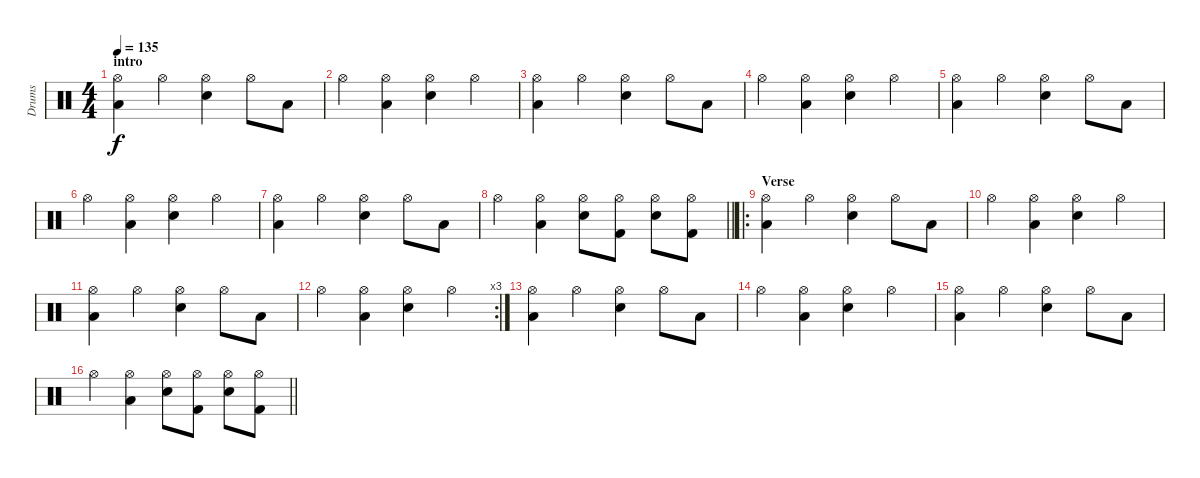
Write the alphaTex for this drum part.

\track ("Drums" "Drums") {instrument percussion}
\staff {score}
\articulation defaults
\ts (4 4)
\section ("" "intro")
\tempo 135
\clef neutral
\ks c
("Hi-Hat (open)" "Low Tom (hit)").4{dy f} "Hi-Hat (open)".4 ("Hi-Hat (open)" "Electric Snare (hit)").4 "Hi-Hat (open)".8 "Low Tom (hit)".8 |
"Hi-Hat (open)".4 ("Hi-Hat (open)" "Low Tom (hit)").4 ("Hi-Hat (open)" "Electric Snare (hit)").4 "Hi-Hat (open)".4 |
("Hi-Hat (open)" "Low Tom (hit)").4 "Hi-Hat (open)".4 ("Hi-Hat (open)" "Electric Snare (hit)").4 "Hi-Hat (open)".8 "Low Tom (hit)".8 |
"Hi-Hat (open)".4 ("Hi-Hat (open)" "Low Tom (hit)").4 ("Hi-Hat (open)" "Electric Snare (hit)").4 "Hi-Hat (open)".4 |
("Hi-Hat (open)" "Low Tom (hit)").4 "Hi-Hat (open)".4 ("Hi-Hat (open)" "Electric Snare (hit)").4 "Hi-Hat (open)".8 "Low Tom (hit)".8 |
"Hi-Hat (open)".4 ("Hi-Hat (open)" "Low Tom (hit)").4 ("Hi-Hat (open)" "Electric Snare (hit)").4 "Hi-Hat (open)".4 |
("Hi-Hat (open)" "Low Tom (hit)").4 "Hi-Hat (open)".4 ("Hi-Hat (open)" "Electric Snare (hit)").4 "Hi-Hat (open)".8 "Low Tom (hit)".8 |
\barLineRight lightlight "Hi-Hat (open)".4
("Hi-Hat (open)" "Low Tom (hit)").4 ("Hi-Hat (open)" "Electric Snare (hit)").8 ("Hi-Hat (open)" "Kick (hit) 2").8 ("Hi-Hat (open)" "Electric Snare (hit)").8 ("Hi-Hat (open)" "Kick (hit) 2").8 |
\ro
\section ("" "Verse")
("Hi-Hat (open)" "Low Tom (hit)").4 "Hi-Hat (open)".4 ("Hi-Hat (open)" "Electric Snare (hit)").4 "Hi-Hat (open)".8 "Low Tom (hit)".8 |
"Hi-Hat (open)".4 ("Hi-Hat (open)" "Low Tom (hit)").4 ("Hi-Hat (open)" "Electric Snare (hit)").4 "Hi-Hat (open)".4 |
("Hi-Hat (open)" "Low Tom (hit)").4 "Hi-Hat (open)".4 ("Hi-Hat (open)" "Electric Snare (hit)").4 "Hi-Hat (open)".8 "Low Tom (hit)".8 |
\rc 3 "Hi-Hat (open)".4
("Hi-Hat (open)" "Low Tom (hit)").4 ("Hi-Hat (open)" "Electric Snare (hit)").4 "Hi-Hat (open)".4 |
("Hi-Hat (open)" "Low Tom (hit)").4 "Hi-Hat (open)".4 ("Hi-Hat (open)" "Electric Snare (hit)").4 "Hi-Hat (open)".8 "Low Tom (hit)".8 |
"Hi-Hat (open)".4 ("Hi-Hat (open)" "Low Tom (hit)").4 ("Hi-Hat (open)" "Electric Snare (hit)").4 "Hi-Hat (open)".4 |
("Hi-Hat (open)" "Low Tom (hit)").4 "Hi-Hat (open)".4 ("Hi-Hat (open)" "Electric Snare (hit)").4 "Hi-Hat (open)".8 "Low Tom (hit)".8 |
\barLineRight lightlight "Hi-Hat (open)".4
("Hi-Hat (open)" "Low Tom (hit)").4 ("Hi-Hat (open)" "Electric Snare (hit)").8 ("Hi-Hat (open)" "Kick (hit) 2").8 ("Hi-Hat (open)" "Electric Snare (hit)").8 ("Hi-Hat (open)" "Kick (hit) 2").8
